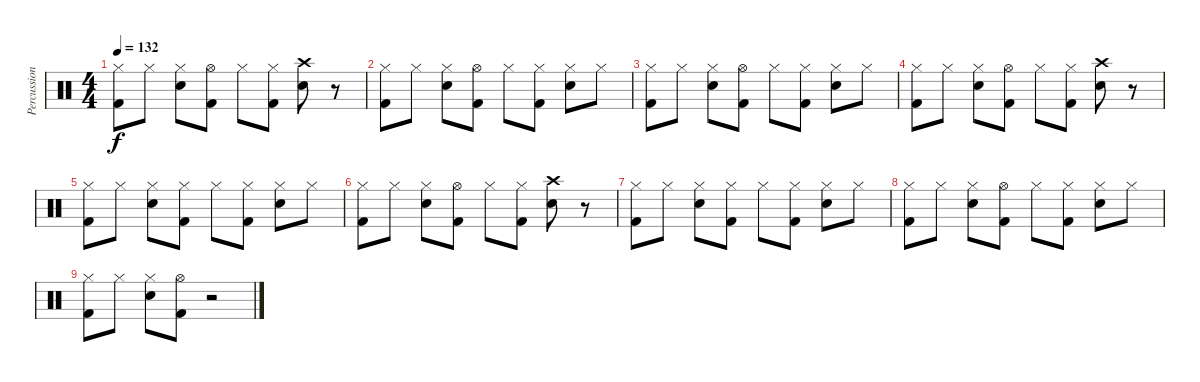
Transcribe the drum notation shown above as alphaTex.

\track ("Percussions" "Percussion") {instrument percussion}
\staff {score}
\articulation defaults
\ts (4 4)
\tempo 132
\clef neutral
\ks c
("Hi-Hat (closed)" "Kick (hit) 2").8{dy f} "Hi-Hat (closed)".8 ("Hi-Hat (closed)" "Electric Snare (hit)").8 ("Hi-Hat (open)" "Kick (hit) 2").8 "Hi-Hat (closed)".8 ("Hi-Hat (closed)" "Kick (hit) 2").8 ("Crash high (hit)" "Electric Snare (hit)").8 r.8 |
("Hi-Hat (closed)" "Kick (hit) 2").8 "Hi-Hat (closed)".8 ("Hi-Hat (closed)" "Electric Snare (hit)").8 ("Hi-Hat (open)" "Kick (hit) 2").8 "Hi-Hat (closed)".8 ("Hi-Hat (closed)" "Kick (hit) 2").8 ("Hi-Hat (closed)" "Electric Snare (hit)").8 "Hi-Hat (closed)".8 |
("Hi-Hat (closed)" "Kick (hit) 2").8 "Hi-Hat (closed)".8 ("Hi-Hat (closed)" "Electric Snare (hit)").8 ("Hi-Hat (open)" "Kick (hit) 2").8 "Hi-Hat (closed)".8 ("Hi-Hat (closed)" "Kick (hit) 2").8 ("Hi-Hat (closed)" "Electric Snare (hit)").8 "Hi-Hat (closed)".8 |
("Hi-Hat (closed)" "Kick (hit) 2").8 "Hi-Hat (closed)".8 ("Hi-Hat (closed)" "Electric Snare (hit)").8 ("Hi-Hat (open)" "Kick (hit) 2").8 "Hi-Hat (closed)".8 ("Hi-Hat (closed)" "Kick (hit) 2").8 ("Crash high (hit)" "Electric Snare (hit)").8 r.8 |
("Hi-Hat (closed)" "Kick (hit) 2").8 "Hi-Hat (closed)".8 ("Hi-Hat (closed)" "Electric Snare (hit)").8 ("Hi-Hat (closed)" "Kick (hit) 2").8 "Hi-Hat (closed)".8 ("Hi-Hat (closed)" "Kick (hit) 2").8 ("Hi-Hat (closed)" "Electric Snare (hit)").8 "Hi-Hat (closed)".8 |
("Hi-Hat (closed)" "Kick (hit) 2").8 "Hi-Hat (closed)".8 ("Hi-Hat (closed)" "Electric Snare (hit)").8 ("Hi-Hat (open)" "Kick (hit) 2").8 "Hi-Hat (closed)".8 ("Hi-Hat (closed)" "Kick (hit) 2").8 ("Crash high (hit)" "Electric Snare (hit)").8 r.8 |
("Hi-Hat (closed)" "Kick (hit) 2").8 "Hi-Hat (closed)".8 ("Hi-Hat (closed)" "Electric Snare (hit)").8 ("Hi-Hat (closed)" "Kick (hit) 2").8 "Hi-Hat (closed)".8 ("Hi-Hat (closed)" "Kick (hit) 2").8 ("Hi-Hat (closed)" "Electric Snare (hit)").8 "Hi-Hat (closed)".8 |
("Hi-Hat (closed)" "Kick (hit) 2").8 "Hi-Hat (closed)".8 ("Hi-Hat (closed)" "Electric Snare (hit)").8 ("Hi-Hat (open)" "Kick (hit) 2").8 "Hi-Hat (closed)".8 ("Hi-Hat (closed)" "Kick (hit) 2").8 ("Hi-Hat (closed)" "Electric Snare (hit)").8 "Hi-Hat (closed)".8 |
("Hi-Hat (closed)" "Kick (hit) 2").8 "Hi-Hat (closed)".8 ("Hi-Hat (closed)" "Electric Snare (hit)").8 ("Hi-Hat (open)" "Kick (hit) 2").8 r.2
